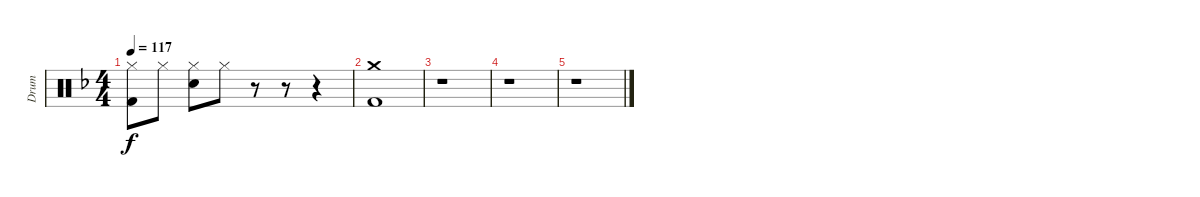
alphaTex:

\track ("Drum" "Drum") {instrument percussion}
\staff {score}
\articulation defaults
\ts (4 4)
\tempo 117
\clef neutral
\ks f
("Kick (hit) 2" "Hi-Hat (closed)").8{dy f} "Hi-Hat (closed)".8 ("Snare (hit) 2" "Hi-Hat (closed)").8 "Hi-Hat (closed)".8 r.8 r.8 r.4 |
("Kick (hit) 2" "Crash medium (hit)").1 |
r.1 |
r.1 |
r.1
